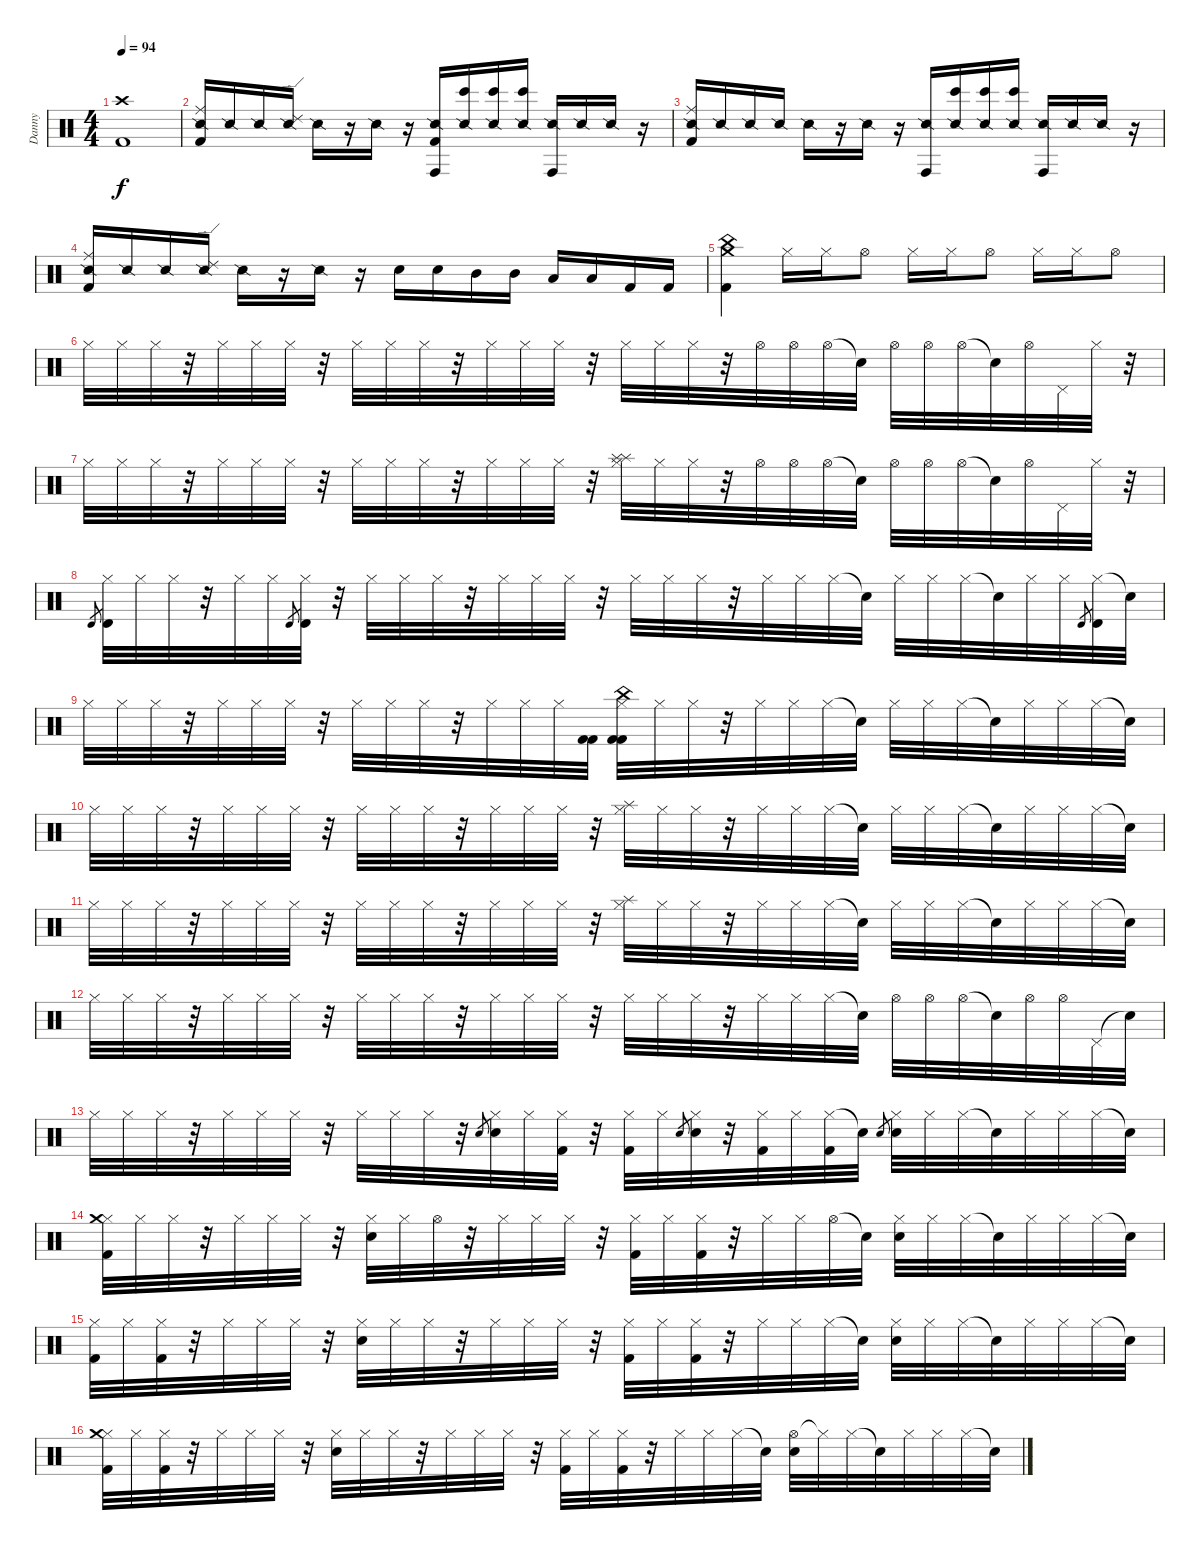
\track ("Danny" "Danny") {instrument percussion}
\staff {score}
\articulation defaults
\ts (4 4)
\tempo 94
\clef neutral
\ks c
("Crash high (hit)" "Kick (hit) 2").1{dy f} |
("Ride (middle)" "Snare (side stick) 2" "Kick (hit) 2").16 "Snare (side stick) 2".16 "Snare (side stick) 2".16 ("Ride (edge) 2" "Snare (side stick) 2").16 "Snare (side stick) 2".16 r.16 "Snare (side stick) 2".16 r.16 ("Conga high (hit)" "Snare (side stick) 2" "Kick (hit) 2").16 ("Bongo High (hit)" "Snare (side stick) 2").16 ("Bongo High (hit)" "Snare (side stick) 2").16 ("Bongo High (hit)" "Snare (side stick) 2").16 ("Conga high (hit)" "Snare (side stick) 2").16 "Snare (side stick) 2".16 "Snare (side stick) 2".16 r.16 |
("Ride (middle)" "Snare (side stick) 2" "Kick (hit) 2").16 "Snare (side stick) 2".16 "Snare (side stick) 2".16 "Snare (side stick) 2".16 "Snare (side stick) 2".16 r.16 "Snare (side stick) 2".16 r.16 ("Conga high (hit)" "Snare (side stick) 2").16 ("Bongo High (hit)" "Snare (side stick) 2").16 ("Bongo High (hit)" "Snare (side stick) 2").16 ("Bongo High (hit)" "Snare (side stick) 2").16 ("Conga high (hit)" "Snare (side stick) 2").16 "Snare (side stick) 2".16 "Snare (side stick) 2".16 r.16 |
("Ride (middle)" "Snare (side stick) 2" "Kick (hit) 2").16 "Snare (side stick) 2".16 "Snare (side stick) 2".16 ("Ride (edge) 2" "Snare (side stick) 2").16 "Snare (side stick) 2".16 r.16 "Snare (side stick) 2".16 r.16 "Electric Snare (hit)".16 "Electric Snare (hit)".16 "Mid Tom (hit)".16 "Mid Tom (hit)".16 "Low Tom (hit)".16 "Low Tom (hit)".16 "Kick (hit) 2".16 "Kick (hit) 2".16 |
("Crash medium (hit)" "China (hit)" "Kick (hit) 2").4 "Hi-Hat (closed)".16 "Hi-Hat (closed)".16 "Hi-Hat (open)".8 "Hi-Hat (closed)".16 "Hi-Hat (closed)".16 "Hi-Hat (open)".8 "Hi-Hat (closed)".16 "Hi-Hat (closed)".16 "Hi-Hat (open)".8 |
"Hi-Hat (closed)".32 "Hi-Hat (closed)".32 "Hi-Hat (closed)".32 r.32 "Hi-Hat (closed)".32 "Hi-Hat (closed)".32 "Hi-Hat (closed)".32 r.32 "Hi-Hat (closed)".32 "Hi-Hat (closed)".32 "Hi-Hat (closed)".32 r.32 "Hi-Hat (closed)".32 "Hi-Hat (closed)".32 "Hi-Hat (closed)".32 r.32 "Hi-Hat (closed)".32 "Hi-Hat (closed)".32 "Hi-Hat (closed)".32 r.32 "Hi-Hat (open)".32 "Hi-Hat (open)".32 "Hi-Hat (open)".32 "Snare (hit)"{t}.32 "Hi-Hat (open)".32 "Hi-Hat (open)".32 "Hi-Hat (open)".32 "Snare (hit)"{t}.32 "Hi-Hat (open)".32 "Pedal Hi-Hat (hit)".32 "Hi-Hat (closed)".32 r.32 |
"Hi-Hat (closed)".32 "Hi-Hat (closed)".32 "Hi-Hat (closed)".32 r.32 "Hi-Hat (closed)".32 "Hi-Hat (closed)".32 "Hi-Hat (closed)".32 r.32 "Hi-Hat (closed)".32 "Hi-Hat (closed)".32 "Hi-Hat (closed)".32 r.32 "Hi-Hat (closed)".32 "Hi-Hat (closed)".32 "Hi-Hat (closed)".32 r.32 ("Hi-Hat (closed)" "Splash (hit)" "Splash (hit)").32 "Hi-Hat (closed)".32 "Hi-Hat (closed)".32 r.32 "Hi-Hat (open)".32 "Hi-Hat (open)".32 "Hi-Hat (open)".32 "Snare (hit)"{t}.32 "Hi-Hat (open)".32 "Hi-Hat (open)".32 "Hi-Hat (open)".32 "Snare (hit)"{t}.32 "Hi-Hat (open)".32 "Pedal Hi-Hat (hit)".32 "Hi-Hat (closed)".32 r.32 |
"Timbale high (hit)".8{gr} ("Hi-Hat (closed)" "Timbale high (hit)").32 "Hi-Hat (closed)".32 "Hi-Hat (closed)".32 r.32 "Hi-Hat (closed)".32 "Hi-Hat (closed)".32 "Timbale high (hit)".8{gr} ("Hi-Hat (closed)" "Timbale high (hit)").32 r.32 "Hi-Hat (closed)".32 "Hi-Hat (closed)".32 "Hi-Hat (closed)".32 r.32 "Hi-Hat (closed)".32 "Hi-Hat (closed)".32 "Hi-Hat (closed)".32 r.32 "Hi-Hat (closed)".32 "Hi-Hat (closed)".32 "Hi-Hat (closed)".32 r.32 "Hi-Hat (closed)".32 "Hi-Hat (closed)".32 "Hi-Hat (closed)".32 "Snare (hit)"{t}.32 "Hi-Hat (closed)".32 "Hi-Hat (closed)".32 "Hi-Hat (closed)".32 "Snare (hit)"{t}.32 "Hi-Hat (closed)".32 "Hi-Hat (closed)".32 "Timbale high (hit)".8{gr} ("Hi-Hat (closed)" "Timbale high (hit)").32 "Snare (hit)"{t}.32 |
"Hi-Hat (closed)".32 "Hi-Hat (closed)".32 "Hi-Hat (closed)".32 r.32 "Hi-Hat (closed)".32 "Hi-Hat (closed)".32 "Hi-Hat (closed)".32 r.32 "Hi-Hat (closed)".32 "Hi-Hat (closed)".32 "Hi-Hat (closed)".32 r.32 "Hi-Hat (closed)".32 "Hi-Hat (closed)".32 "Hi-Hat (closed)".32 ("Kick (hit) 2" "Kick (hit) 2").32 ("Hi-Hat (closed)" "China (hit)" "Kick (hit) 2" "Kick (hit) 2").32 "Hi-Hat (closed)".32 "Hi-Hat (closed)".32 r.32 "Hi-Hat (closed)".32 "Hi-Hat (closed)".32 "Hi-Hat (closed)".32 "Snare (hit)"{t}.32 "Hi-Hat (closed)".32 "Hi-Hat (closed)".32 "Hi-Hat (closed)".32 "Snare (hit)"{t}.32 "Hi-Hat (closed)".32 "Hi-Hat (closed)".32 "Hi-Hat (closed)".32 "Snare (hit)"{t}.32 |
"Hi-Hat (closed)".32 "Hi-Hat (closed)".32 "Hi-Hat (closed)".32 r.32 "Hi-Hat (closed)".32 "Hi-Hat (closed)".32 "Hi-Hat (closed)".32 r.32 "Hi-Hat (closed)".32 "Hi-Hat (closed)".32 "Hi-Hat (closed)".32 r.32 "Hi-Hat (closed)".32 "Hi-Hat (closed)".32 "Hi-Hat (closed)".32 r.32 ("Hi-Hat (closed)" "Splash (hit)").32 "Hi-Hat (closed)".32 "Hi-Hat (closed)".32 r.32 "Hi-Hat (closed)".32 "Hi-Hat (closed)".32 "Hi-Hat (closed)".32 "Snare (hit)"{t}.32 "Hi-Hat (closed)".32 "Hi-Hat (closed)".32 "Hi-Hat (closed)".32 "Snare (hit)"{t}.32 "Hi-Hat (closed)".32 "Hi-Hat (closed)".32 "Hi-Hat (closed)".32 "Snare (hit)"{t}.32 |
"Hi-Hat (closed)".32 "Hi-Hat (closed)".32 "Hi-Hat (closed)".32 r.32 "Hi-Hat (closed)".32 "Hi-Hat (closed)".32 "Hi-Hat (closed)".32 r.32 "Hi-Hat (closed)".32 "Hi-Hat (closed)".32 "Hi-Hat (closed)".32 r.32 "Hi-Hat (closed)".32 "Hi-Hat (closed)".32 "Hi-Hat (closed)".32 r.32 ("Hi-Hat (closed)" "Splash (hit)").32 "Hi-Hat (closed)".32 "Hi-Hat (closed)".32 r.32 "Hi-Hat (closed)".32 "Hi-Hat (closed)".32 "Hi-Hat (closed)".32 "Snare (hit)"{t}.32 "Hi-Hat (closed)".32 "Hi-Hat (closed)".32 "Hi-Hat (closed)".32 "Snare (hit)"{t}.32 "Hi-Hat (closed)".32 "Hi-Hat (closed)".32 "Hi-Hat (closed)".32 "Snare (hit)"{t}.32 |
"Hi-Hat (closed)".32 "Hi-Hat (closed)".32 "Hi-Hat (closed)".32 r.32 "Hi-Hat (closed)".32 "Hi-Hat (closed)".32 "Hi-Hat (closed)".32 r.32 "Hi-Hat (closed)".32 "Hi-Hat (closed)".32 "Hi-Hat (closed)".32 r.32 "Hi-Hat (closed)".32 "Hi-Hat (closed)".32 "Hi-Hat (closed)".32 r.32 "Hi-Hat (closed)".32 "Hi-Hat (closed)".32 "Hi-Hat (closed)".32 r.32 "Hi-Hat (closed)".32 "Hi-Hat (closed)".32 "Hi-Hat (closed)".32 "Snare (hit)"{t}.32 "Hi-Hat (open)".32 "Hi-Hat (open)".32 "Hi-Hat (open)".32 "Snare (hit)"{t}.32 "Hi-Hat (open)".32 "Hi-Hat (open)".32 "Pedal Hi-Hat (hit)".32 "Snare (hit)"{t}.32 |
"Hi-Hat (closed)".32 "Hi-Hat (closed)".32 "Hi-Hat (closed)".32 r.32 "Hi-Hat (closed)".32 "Hi-Hat (closed)".32 "Hi-Hat (closed)".32 r.32 "Hi-Hat (closed)".32 "Hi-Hat (closed)".32 "Hi-Hat (closed)".32 r.32 "Electric Snare (hit)".8{gr} ("Hi-Hat (closed)" "Electric Snare (hit)").32 "Hi-Hat (closed)".32 ("Hi-Hat (closed)" "Kick (hit) 2").32 r.32 ("Hi-Hat (closed)" "Kick (hit) 2").32 "Hi-Hat (closed)".32 "Electric Snare (hit)".8{gr} ("Hi-Hat (closed)" "Electric Snare (hit)").32 r.32 ("Hi-Hat (closed)" "Kick (hit) 2").32 "Hi-Hat (closed)".32 ("Hi-Hat (closed)" "Kick (hit) 2").32 "Snare (hit)"{t}.32 "Electric Snare (hit)".8{gr} ("Hi-Hat (closed)" "Electric Snare (hit)").32 "Hi-Hat (closed)".32 "Hi-Hat (closed)".32 "Snare (hit)"{t}.32 "Hi-Hat (closed)".32 "Hi-Hat (closed)".32 "Hi-Hat (closed)".32 "Snare (hit)"{t}.32 |
("Hi-Hat (closed)" "Crash medium (hit)" "Kick (hit) 2").32 "Hi-Hat (closed)".32 "Hi-Hat (closed)".32 r.32 "Hi-Hat (closed)".32 "Hi-Hat (closed)".32 "Hi-Hat (closed)".32 r.32 ("Hi-Hat (closed)" "Electric Snare (hit)").32 "Hi-Hat (closed)".32 "Hi-Hat (open)".32 r.32 "Hi-Hat (closed)".32 "Hi-Hat (closed)".32 "Hi-Hat (closed)".32 r.32 ("Hi-Hat (closed)" "Kick (hit) 2").32 "Hi-Hat (closed)".32 ("Hi-Hat (closed)" "Kick (hit) 2").32 r.32 "Hi-Hat (closed)".32 "Hi-Hat (closed)".32 "Hi-Hat (open)".32 "Snare (hit)"{t}.32 ("Hi-Hat (closed)" "Electric Snare (hit)").32 "Hi-Hat (closed)".32 "Hi-Hat (closed)".32 "Snare (hit)"{t}.32 "Hi-Hat (closed)".32 "Hi-Hat (closed)".32 "Hi-Hat (closed)".32 "Snare (hit)"{t}.32 |
("Hi-Hat (closed)" "Kick (hit) 2").32 "Hi-Hat (closed)".32 ("Hi-Hat (closed)" "Kick (hit) 2").32 r.32 "Hi-Hat (closed)".32 "Hi-Hat (closed)".32 "Hi-Hat (closed)".32 r.32 ("Hi-Hat (closed)" "Electric Snare (hit)").32 "Hi-Hat (closed)".32 "Hi-Hat (closed)".32 r.32 "Hi-Hat (closed)".32 "Hi-Hat (closed)".32 "Hi-Hat (closed)".32 r.32 ("Hi-Hat (closed)" "Kick (hit) 2").32 "Hi-Hat (closed)".32 ("Hi-Hat (closed)" "Kick (hit) 2").32 r.32 "Hi-Hat (closed)".32 "Hi-Hat (closed)".32 "Hi-Hat (closed)".32 "Snare (hit)"{t}.32 ("Hi-Hat (closed)" "Electric Snare (hit)").32 "Hi-Hat (closed)".32 "Hi-Hat (closed)".32 "Snare (hit)"{t}.32 "Hi-Hat (closed)".32 "Hi-Hat (closed)".32 "Hi-Hat (closed)".32 "Snare (hit)"{t}.32 |
("Hi-Hat (closed)" "Crash medium (hit)" "Kick (hit) 2").32 "Hi-Hat (closed)".32 ("Hi-Hat (closed)" "Kick (hit) 2").32 r.32 "Hi-Hat (closed)".32 "Hi-Hat (closed)".32 "Hi-Hat (closed)".32 r.32 ("Hi-Hat (closed)" "Electric Snare (hit)").32 "Hi-Hat (closed)".32 "Hi-Hat (closed)".32 r.32 "Hi-Hat (closed)".32 "Hi-Hat (closed)".32 "Hi-Hat (closed)".32 r.32 ("Hi-Hat (closed)" "Kick (hit) 2").32 "Hi-Hat (closed)".32 ("Hi-Hat (closed)" "Kick (hit) 2").32 r.32 "Hi-Hat (closed)".32 "Hi-Hat (closed)".32 "Hi-Hat (closed)".32 "Snare (hit)"{t}.32 ("Hi-Hat (open)" "Electric Snare (hit)").32 "Hi-Hat (closed)"{t}.32 "Hi-Hat (closed)".32 "Snare (hit)"{t}.32 "Hi-Hat (closed)".32 "Hi-Hat (closed)".32 "Hi-Hat (closed)".32 "Snare (hit)"{t}.32
